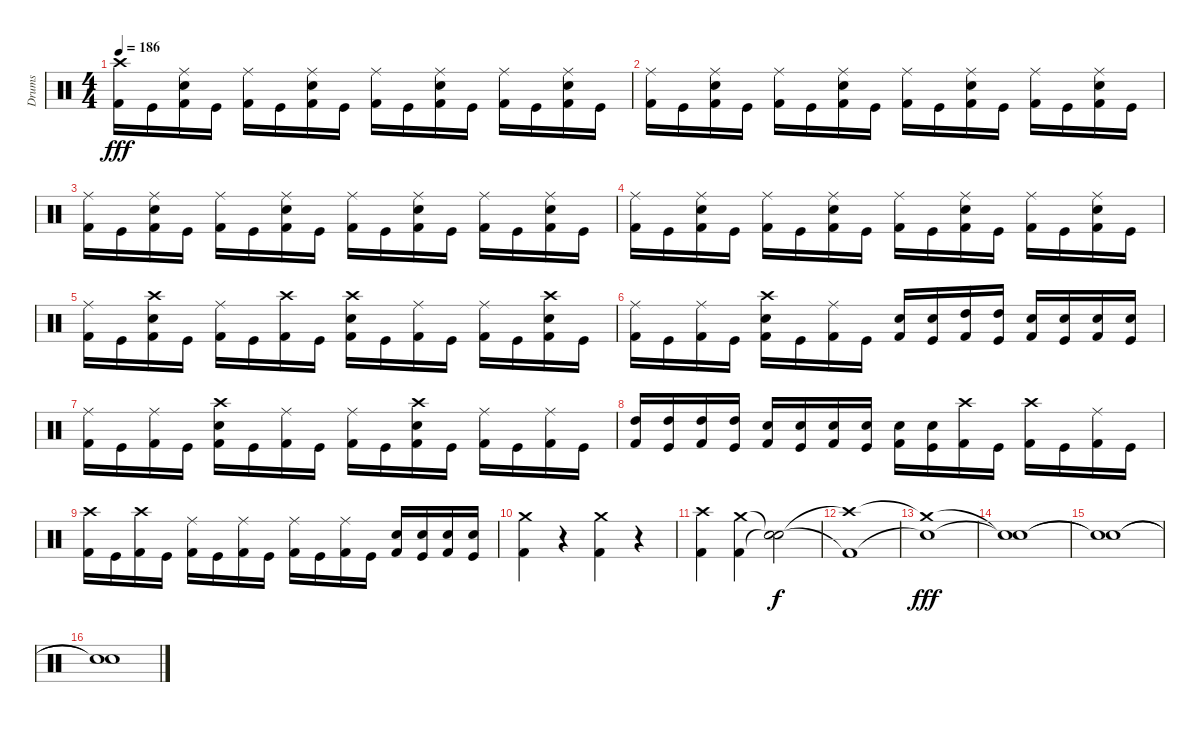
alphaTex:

\track ("Drums" "Drums") {instrument percussion}
\staff {score}
\articulation defaults
\ts (4 4)
\tempo 186
\clef neutral
\ks c
("Crash high (hit)" "Kick (hit) 2").16{dy fff} "Kick (hit)".16 ("Ride (middle)" "Electric Snare (hit)" "Kick (hit) 2").16 "Kick (hit)".16 ("Ride (middle)" "Kick (hit) 2").16 "Kick (hit)".16 ("Ride (middle)" "Electric Snare (hit)" "Kick (hit) 2").16 "Kick (hit)".16 ("Ride (middle)" "Kick (hit) 2").16 "Kick (hit)".16 ("Ride (middle)" "Electric Snare (hit)" "Kick (hit) 2").16 "Kick (hit)".16 ("Ride (middle)" "Kick (hit) 2").16 "Kick (hit)".16 ("Ride (middle)" "Electric Snare (hit)" "Kick (hit) 2").16 "Kick (hit)".16 |
("Ride (middle)" "Kick (hit) 2").16 "Kick (hit)".16 ("Ride (middle)" "Electric Snare (hit)" "Kick (hit) 2").16 "Kick (hit)".16 ("Ride (middle)" "Kick (hit) 2").16 "Kick (hit)".16 ("Ride (middle)" "Electric Snare (hit)" "Kick (hit) 2").16 "Kick (hit)".16 ("Ride (middle)" "Kick (hit) 2").16 "Kick (hit)".16 ("Ride (middle)" "Electric Snare (hit)" "Kick (hit) 2").16 "Kick (hit)".16 ("Ride (middle)" "Kick (hit) 2").16 "Kick (hit)".16 ("Ride (middle)" "Electric Snare (hit)" "Kick (hit) 2").16 "Kick (hit)".16 |
("Ride (middle)" "Kick (hit) 2").16 "Kick (hit)".16 ("Ride (middle)" "Electric Snare (hit)" "Kick (hit) 2").16 "Kick (hit)".16 ("Ride (middle)" "Kick (hit) 2").16 "Kick (hit)".16 ("Ride (middle)" "Electric Snare (hit)" "Kick (hit) 2").16 "Kick (hit)".16 ("Ride (middle)" "Kick (hit) 2").16 "Kick (hit)".16 ("Ride (middle)" "Electric Snare (hit)" "Kick (hit) 2").16 "Kick (hit)".16 ("Ride (middle)" "Kick (hit) 2").16 "Kick (hit)".16 ("Ride (middle)" "Electric Snare (hit)" "Kick (hit) 2").16 "Kick (hit)".16 |
("Ride (middle)" "Kick (hit) 2").16 "Kick (hit)".16 ("Ride (middle)" "Electric Snare (hit)" "Kick (hit) 2").16 "Kick (hit)".16 ("Ride (middle)" "Kick (hit) 2").16 "Kick (hit)".16 ("Ride (middle)" "Electric Snare (hit)" "Kick (hit) 2").16 "Kick (hit)".16 ("Ride (middle)" "Kick (hit) 2").16 "Kick (hit)".16 ("Ride (middle)" "Electric Snare (hit)" "Kick (hit) 2").16 "Kick (hit)".16 ("Ride (middle)" "Kick (hit) 2").16 "Kick (hit)".16 ("Ride (middle)" "Electric Snare (hit)" "Kick (hit) 2").16 "Kick (hit)".16 |
("Ride (middle)" "Kick (hit) 2").16 "Kick (hit)".16 ("Crash high (hit)" "Electric Snare (hit)" "Kick (hit) 2").16 "Kick (hit)".16 ("Ride (middle)" "Kick (hit) 2").16 "Kick (hit)".16 ("Crash high (hit)" "Kick (hit) 2").16 "Kick (hit)".16 ("Crash high (hit)" "Electric Snare (hit)" "Kick (hit) 2").16 "Kick (hit)".16 ("Ride (middle)" "Kick (hit) 2").16 "Kick (hit)".16 ("Ride (middle)" "Kick (hit) 2").16 "Kick (hit)".16 ("Crash high (hit)" "Electric Snare (hit)" "Kick (hit) 2").16 "Kick (hit)".16 |
("Ride (middle)" "Kick (hit) 2").16 "Kick (hit)".16 ("Ride (middle)" "Kick (hit) 2").16 "Kick (hit)".16 ("Crash high (hit)" "Electric Snare (hit)" "Kick (hit) 2").16 "Kick (hit)".16 ("Ride (middle)" "Kick (hit) 2").16 "Kick (hit)".16 ("Electric Snare (hit)" "Kick (hit) 2").16 ("Electric Snare (hit)" "Kick (hit)").16 ("High Tom (hit)" "Kick (hit) 2").16 ("High Tom (hit)" "Kick (hit)").16 ("Electric Snare (hit)" "Kick (hit) 2").16 ("Electric Snare (hit)" "Kick (hit)").16 ("Electric Snare (hit)" "Kick (hit) 2").16 ("Electric Snare (hit)" "Kick (hit)").16 |
("Ride (middle)" "Kick (hit) 2").16 "Kick (hit)".16 ("Ride (middle)" "Kick (hit) 2").16 "Kick (hit)".16 ("Crash high (hit)" "Electric Snare (hit)" "Kick (hit) 2").16 "Kick (hit)".16 ("Ride (middle)" "Kick (hit) 2").16 "Kick (hit)".16 ("Ride (middle)" "Kick (hit) 2").16 "Kick (hit)".16 ("Crash high (hit)" "Electric Snare (hit)" "Kick (hit) 2").16 "Kick (hit)".16 ("Ride (middle)" "Kick (hit) 2").16 "Kick (hit)".16 ("Ride (middle)" "Kick (hit) 2").16 "Kick (hit)".16 |
("High Tom (hit)" "Kick (hit) 2").16 ("High Tom (hit)" "Kick (hit)").16 ("High Tom (hit)" "Kick (hit) 2").16 ("High Tom (hit)" "Kick (hit)").16 ("Electric Snare (hit)" "Kick (hit) 2").16 ("Electric Snare (hit)" "Kick (hit)").16 ("Electric Snare (hit)" "Kick (hit) 2").16 ("Electric Snare (hit)" "Kick (hit)").16 ("Electric Snare (hit)" "Kick (hit) 2").16 ("Electric Snare (hit)" "Kick (hit)").16 ("Crash high (hit)" "Kick (hit) 2").16 "Kick (hit)".16 ("Crash high (hit)" "Kick (hit) 2").16 "Kick (hit)".16 ("Ride (middle)" "Kick (hit) 2").16 "Kick (hit)".16 |
("Crash high (hit)" "Kick (hit) 2").16 "Kick (hit)".16 ("Crash high (hit)" "Kick (hit) 2").16 "Kick (hit)".16 ("Ride (middle)" "Kick (hit) 2").16 "Kick (hit)".16 ("Ride (middle)" "Kick (hit) 2").16 "Kick (hit)".16 ("Ride (middle)" "Kick (hit) 2").16 "Kick (hit)".16 ("Ride (middle)" "Kick (hit) 2").16 "Kick (hit)".16 ("Electric Snare (hit)" "Kick (hit) 2").16 ("Electric Snare (hit)" "Kick (hit)").16 ("Electric Snare (hit)" "Kick (hit) 2").16 ("Electric Snare (hit)" "Kick (hit)").16 |
("Crash medium (hit)" "Kick (hit) 2").4 r.4 ("Crash medium (hit)" "Kick (hit) 2").4 r.4 |
("Crash high (hit)" "Kick (hit) 2").4 ("Crash medium (hit)" "Kick (hit) 2").4 ("Snare (hit)"{t} "Snare (hit)"{t}).2{dy f} |
("Crash high (hit)"{t} "Kick (hit) 2"{t}).1 |
("Crash medium (hit)"{t} "Snare (hit)"{t}).1{dy fff} |
("Snare (hit)"{t} "Snare (hit)"{t}).1 |
("Snare (hit)"{t} "Snare (hit)"{t}).1 |
("Snare (hit)"{t} "Snare (hit)"{t}).1
